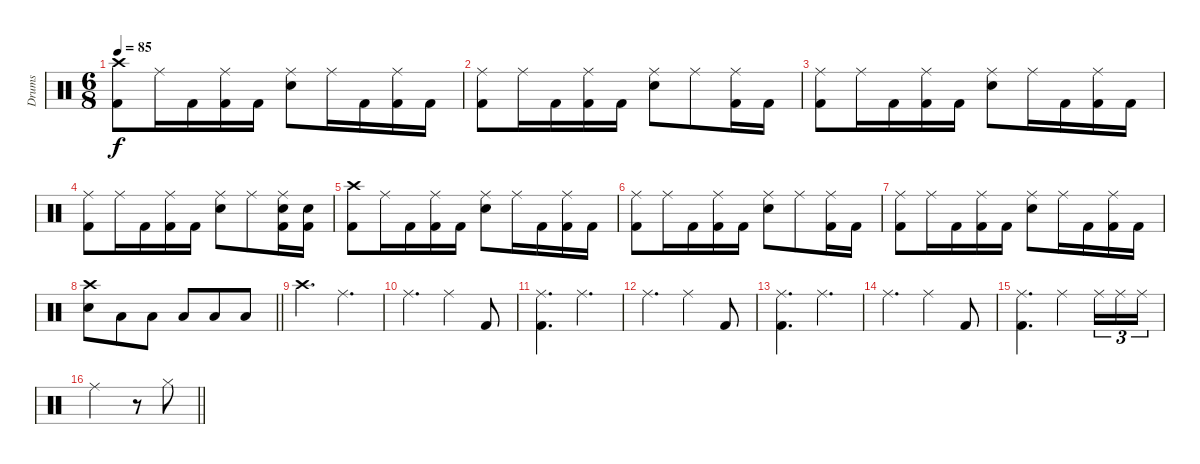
\track ("Drums" "Drums") {instrument percussion}
\staff {score}
\articulation defaults
\ts (6 8)
\tempo 85
\clef neutral
\ks c
("Crash high (hit)" "Kick (hit) 2").8{dy f} "Ride (middle)".16 "Kick (hit) 2".16 ("Ride (middle)" "Kick (hit) 2").16 "Kick (hit) 2".16 ("Ride (middle)" "Snare (hit) 2").8 "Ride (middle)".16 "Kick (hit) 2".16 ("Ride (middle)" "Kick (hit) 2").16 "Kick (hit) 2".16 |
("Ride (middle)" "Kick (hit) 2").8 "Ride (middle)".16 "Kick (hit) 2".16 ("Ride (middle)" "Kick (hit) 2").16 "Kick (hit) 2".16 ("Ride (middle)" "Snare (hit) 2").8 "Ride (middle)".8 ("Ride (middle)" "Kick (hit) 2").16 "Kick (hit) 2".16 |
("Ride (middle)" "Kick (hit) 2").8 "Ride (middle)".16 "Kick (hit) 2".16 ("Ride (middle)" "Kick (hit) 2").16 "Kick (hit) 2".16 ("Ride (middle)" "Snare (hit) 2").8 "Ride (middle)".16 "Kick (hit) 2".16 ("Ride (middle)" "Kick (hit) 2").16 "Kick (hit) 2".16 |
("Ride (middle)" "Kick (hit) 2").8 "Ride (middle)".16 "Kick (hit) 2".16 ("Ride (middle)" "Kick (hit) 2").16 "Kick (hit) 2".16 ("Ride (middle)" "Snare (hit) 2").8 "Ride (middle)".8 ("Ride (middle)" "Snare (hit) 2" "Kick (hit) 2").16 ("Snare (hit) 2" "Kick (hit) 2").16 |
("Crash high (hit)" "Kick (hit) 2").8 "Ride (middle)".16 "Kick (hit) 2".16 ("Ride (middle)" "Kick (hit) 2").16 "Kick (hit) 2".16 ("Ride (middle)" "Snare (hit) 2").8 "Ride (middle)".16 "Kick (hit) 2".16 ("Ride (middle)" "Kick (hit) 2").16 "Kick (hit) 2".16 |
("Ride (middle)" "Kick (hit) 2").8 "Ride (middle)".16 "Kick (hit) 2".16 ("Ride (middle)" "Kick (hit) 2").16 "Kick (hit) 2".16 ("Ride (middle)" "Snare (hit) 2").8 "Ride (middle)".8 ("Ride (middle)" "Kick (hit) 2").16 "Kick (hit) 2".16 |
("Ride (middle)" "Kick (hit) 2").8 "Ride (middle)".16 "Kick (hit) 2".16 ("Ride (middle)" "Kick (hit) 2").16 "Kick (hit) 2".16 ("Ride (middle)" "Snare (hit) 2").8 "Ride (middle)".16 "Kick (hit) 2".16 ("Ride (middle)" "Kick (hit) 2").16 "Kick (hit) 2".16 |
\barLineRight lightlight
("Crash high (hit)" "Snare (hit) 2").8 "Low Floor Tom (hit)".8 "Low Floor Tom (hit)".8 "Low Floor Tom (hit)".8 "Low Floor Tom (hit)".8 "Low Floor Tom (hit)".8 |
"Crash high (hit)".4{d} "Ride (middle)".4{d} |
"Ride (middle)".4{d} "Ride (middle)".4 "Kick (hit) 2".8 |
("Ride (middle)" "Kick (hit) 2").4{d} "Ride (middle)".4{d} |
"Ride (middle)".4{d} "Ride (middle)".4 "Kick (hit) 2".8 |
("Ride (middle)" "Kick (hit) 2").4{d} "Ride (middle)".4{d} |
"Ride (middle)".4{d} "Ride (middle)".4 "Kick (hit) 2".8 |
("Ride (middle)" "Kick (hit) 2").4{d} "Ride (middle)".4 "Ride (middle)".16{tu (3 2)} "Ride (middle)".16{tu (3 2)} "Ride (middle)".16{tu (3 2)} |
\barLineRight lightlight "Ride (middle)".2
r.8 "Hi-Hat (closed)".8
